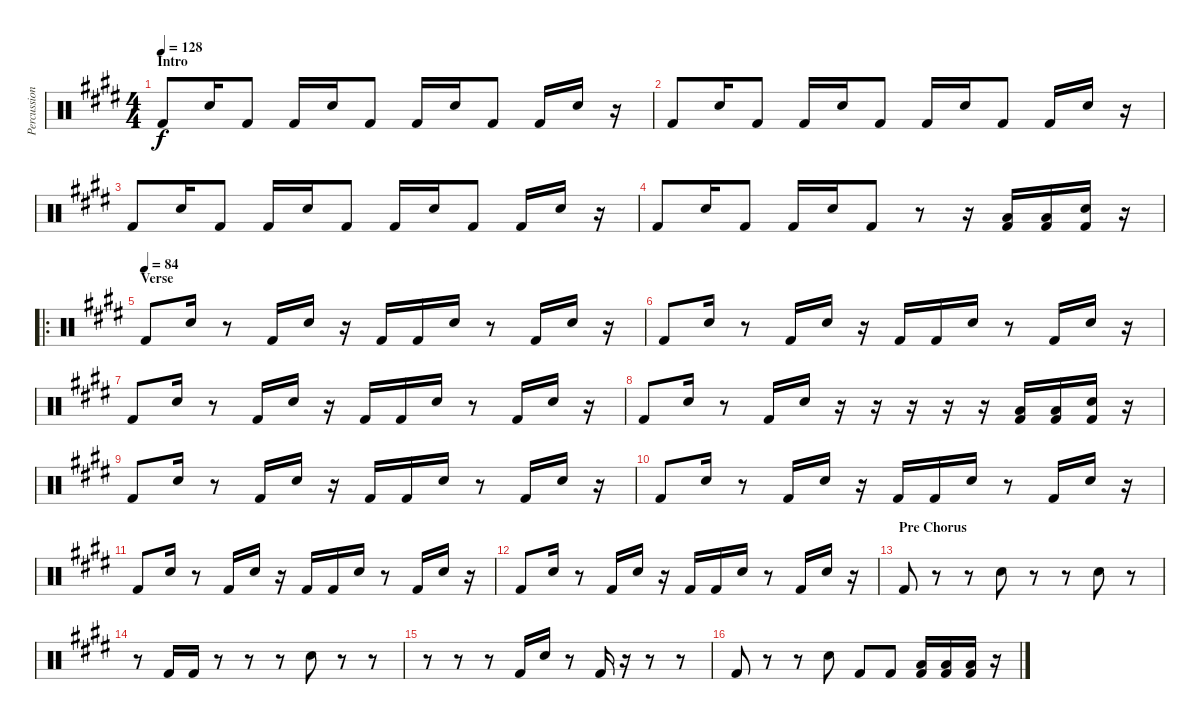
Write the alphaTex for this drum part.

\track ("Percussion" "Percussion") {instrument percussion}
\staff {score}
\articulation defaults
\ts (4 4)
\section ("" "Intro")
\tempo 128
\tempo 84
\tempo 128
\clef neutral
\ks e "Kick (hit) 2".8{dy f} "Snare (hit) 2".16 "Kick (hit) 2".8 "Kick (hit) 2".16 "Snare (hit) 2".16 "Kick (hit) 2".8 "Kick (hit) 2".16 "Snare (hit) 2".16 "Kick (hit) 2".8 "Kick (hit) 2".16 "Snare (hit) 2".16
r.16 |
"Kick (hit) 2".8 "Snare (hit) 2".16 "Kick (hit) 2".8 "Kick (hit) 2".16 "Snare (hit) 2".16 "Kick (hit) 2".8 "Kick (hit) 2".16 "Snare (hit) 2".16 "Kick (hit) 2".8 "Kick (hit) 2".16 "Snare (hit) 2".16 r.16 |
"Kick (hit) 2".8 "Snare (hit) 2".16 "Kick (hit) 2".8 "Kick (hit) 2".16 "Snare (hit) 2".16 "Kick (hit) 2".8 "Kick (hit) 2".16 "Snare (hit) 2".16 "Kick (hit) 2".8 "Kick (hit) 2".16 "Snare (hit) 2".16 r.16 |
"Kick (hit) 2".8 "Snare (hit) 2".16 "Kick (hit) 2".8 "Kick (hit) 2".16 "Snare (hit) 2".16 "Kick (hit) 2".8 r.8 r.16 ("Low Floor Tom (hit)" "Kick (hit) 2").16 ("Low Floor Tom (hit)" "Kick (hit) 2").16 ("Snare (hit) 2" "Kick (hit) 2").16 r.16 |
\ro
\section ("" "Verse")
\tempo (84)
"Kick (hit) 2".8 "Snare (hit) 2".16 r.8 "Kick (hit) 2".16 "Snare (hit) 2".16 r.16 "Kick (hit) 2".16 "Kick (hit) 2".16 "Snare (hit) 2".16 r.8 "Kick (hit) 2".16 "Snare (hit) 2".16 r.16 |
"Kick (hit) 2".8 "Snare (hit) 2".16 r.8 "Kick (hit) 2".16 "Snare (hit) 2".16 r.16 "Kick (hit) 2".16 "Kick (hit) 2".16 "Snare (hit) 2".16 r.8 "Kick (hit) 2".16 "Snare (hit) 2".16 r.16 |
"Kick (hit) 2".8 "Snare (hit) 2".16 r.8 "Kick (hit) 2".16 "Snare (hit) 2".16 r.16 "Kick (hit) 2".16 "Kick (hit) 2".16 "Snare (hit) 2".16 r.8 "Kick (hit) 2".16 "Snare (hit) 2".16 r.16 |
"Kick (hit) 2".8 "Snare (hit) 2".16 r.8 "Kick (hit) 2".16 "Snare (hit) 2".16 r.16 r.16 r.16 r.16 r.16 ("Low Floor Tom (hit)" "Kick (hit) 2").16 ("Low Floor Tom (hit)" "Kick (hit) 2").16 ("Snare (hit) 2" "Kick (hit) 2").16 r.16 |
"Kick (hit) 2".8 "Snare (hit) 2".16 r.8 "Kick (hit) 2".16 "Snare (hit) 2".16 r.16 "Kick (hit) 2".16 "Kick (hit) 2".16 "Snare (hit) 2".16 r.8 "Kick (hit) 2".16 "Snare (hit) 2".16 r.16 |
"Kick (hit) 2".8 "Snare (hit) 2".16 r.8 "Kick (hit) 2".16 "Snare (hit) 2".16 r.16 "Kick (hit) 2".16 "Kick (hit) 2".16 "Snare (hit) 2".16 r.8 "Kick (hit) 2".16 "Snare (hit) 2".16 r.16 |
"Kick (hit) 2".8 "Snare (hit) 2".16 r.8 "Kick (hit) 2".16 "Snare (hit) 2".16 r.16 "Kick (hit) 2".16 "Kick (hit) 2".16 "Snare (hit) 2".16 r.8 "Kick (hit) 2".16 "Snare (hit) 2".16 r.16 |
"Kick (hit) 2".8 "Snare (hit) 2".16 r.8 "Kick (hit) 2".16 "Snare (hit) 2".16 r.16 "Kick (hit) 2".16 "Kick (hit) 2".16 "Snare (hit) 2".16 r.8 "Kick (hit) 2".16 "Snare (hit) 2".16 r.16 |
\section ("" "Pre Chorus")
"Kick (hit) 2".8 r.8 r.8 "Snare (hit) 2".8 r.8 r.8 "Snare (hit) 2".8 r.8 |
r.8 "Kick (hit) 2".16 "Kick (hit) 2".16 r.8 r.8 r.8 "Snare (hit) 2".8 r.8 r.8 |
r.8 r.8 r.8 "Kick (hit) 2".16 "Snare (hit) 2".16 r.8 "Kick (hit) 2".16 r.16 r.8 r.8 |
"Kick (hit) 2".8 r.8 r.8 "Snare (hit) 2".8 "Kick (hit) 2".8 "Kick (hit) 2".8 ("Low Floor Tom (hit)" "Kick (hit) 2").16 ("Low Floor Tom (hit)" "Kick (hit) 2").16 ("Low Floor Tom (hit)" "Kick (hit) 2").16 r.16
